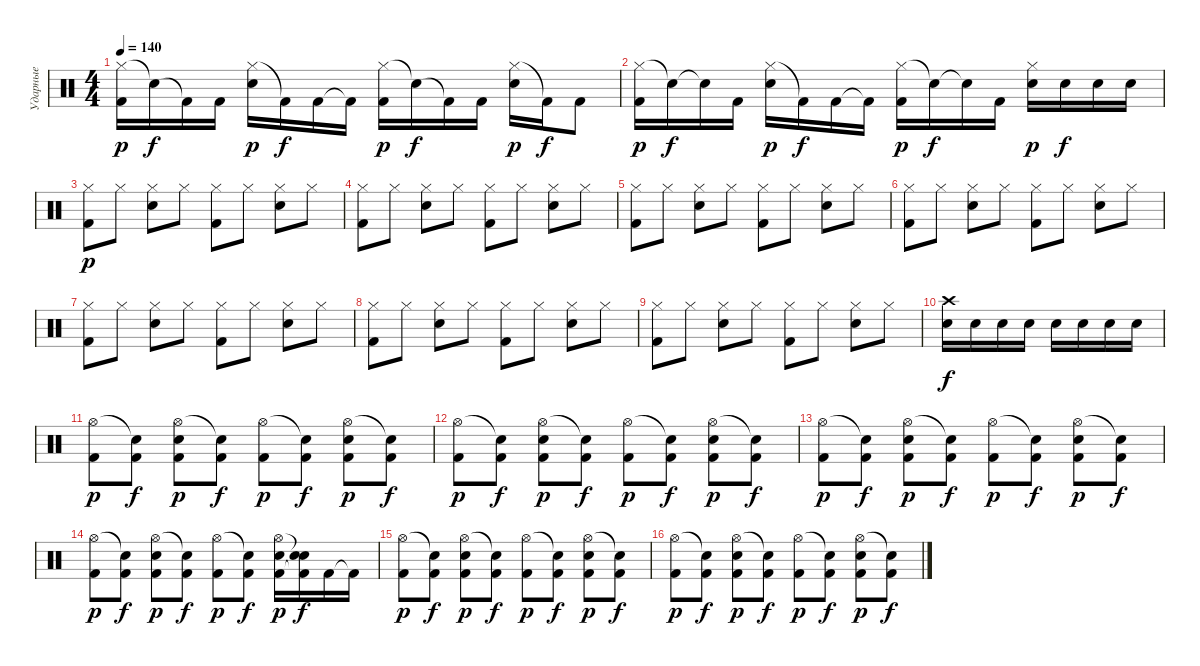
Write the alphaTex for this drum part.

\track ("Ударные" "Ударные") {instrument percussion}
\staff {score}
\articulation defaults
\ts (4 4)
\tempo 140
\clef neutral
\ks c
("Hi-Hat (closed)" "Kick (hit) 2").16{dy p} "Snare (hit)"{t}.16{dy f} "Kick (hit) 2"{t}.16 "Kick (hit) 2".16 ("Hi-Hat (closed)" "Electric Snare (hit)").16{dy p} "Kick (hit) 2"{t}.16{dy f} "Kick (hit) 2".16 "Kick (hit) 2"{t}.16 ("Hi-Hat (closed)" "Kick (hit) 2").16{dy p} "Snare (hit)"{t}.16{dy f} "Kick (hit) 2"{t}.16 "Kick (hit) 2".16 ("Hi-Hat (closed)" "Electric Snare (hit)").16{dy p} "Kick (hit) 2"{t}.16{dy f} "Kick (hit) 2".8 |
("Hi-Hat (closed)" "Kick (hit) 2").16{dy p} "Snare (hit)"{t}.16{dy f} "Electric Snare (hit)"{t}.16 "Kick (hit) 2".16 ("Hi-Hat (closed)" "Electric Snare (hit)").16{dy p} "Kick (hit) 2"{t}.16{dy f} "Kick (hit) 2".16 "Kick (hit) 2"{t}.16 ("Hi-Hat (closed)" "Kick (hit) 2").16{dy p} "Snare (hit)"{t}.16{dy f} "Snare (hit)"{t}.16 "Kick (hit) 2".16 ("Hi-Hat (closed)" "Electric Snare (hit)").16{dy p} "Electric Snare (hit)".16{dy f} "Electric Snare (hit)".16 "Electric Snare (hit)".16 |
("Hi-Hat (closed)" "Kick (hit) 2").8{dy p} "Hi-Hat (closed)".8 ("Hi-Hat (closed)" "Electric Snare (hit)").8 "Hi-Hat (closed)".8 ("Hi-Hat (closed)" "Kick (hit) 2").8 "Hi-Hat (closed)".8 ("Hi-Hat (closed)" "Electric Snare (hit)").8 "Hi-Hat (closed)".8 |
("Hi-Hat (closed)" "Kick (hit) 2").8 "Hi-Hat (closed)".8 ("Hi-Hat (closed)" "Electric Snare (hit)").8 "Hi-Hat (closed)".8 ("Hi-Hat (closed)" "Kick (hit) 2").8 "Hi-Hat (closed)".8 ("Hi-Hat (closed)" "Electric Snare (hit)").8 "Hi-Hat (closed)".8 |
("Hi-Hat (closed)" "Kick (hit) 2").8 "Hi-Hat (closed)".8 ("Hi-Hat (closed)" "Electric Snare (hit)").8 "Hi-Hat (closed)".8 ("Hi-Hat (closed)" "Kick (hit) 2").8 "Hi-Hat (closed)".8 ("Hi-Hat (closed)" "Electric Snare (hit)").8 "Hi-Hat (closed)".8 |
("Hi-Hat (closed)" "Kick (hit) 2").8 "Hi-Hat (closed)".8 ("Hi-Hat (closed)" "Electric Snare (hit)").8 "Hi-Hat (closed)".8 ("Hi-Hat (closed)" "Kick (hit) 2").8 "Hi-Hat (closed)".8 ("Hi-Hat (closed)" "Electric Snare (hit)").8 "Hi-Hat (closed)".8 |
("Hi-Hat (closed)" "Kick (hit) 2").8 "Hi-Hat (closed)".8 ("Hi-Hat (closed)" "Electric Snare (hit)").8 "Hi-Hat (closed)".8 ("Hi-Hat (closed)" "Kick (hit) 2").8 "Hi-Hat (closed)".8 ("Hi-Hat (closed)" "Electric Snare (hit)").8 "Hi-Hat (closed)".8 |
("Hi-Hat (closed)" "Kick (hit) 2").8 "Hi-Hat (closed)".8 ("Hi-Hat (closed)" "Electric Snare (hit)").8 "Hi-Hat (closed)".8 ("Hi-Hat (closed)" "Kick (hit) 2").8 "Hi-Hat (closed)".8 ("Hi-Hat (closed)" "Electric Snare (hit)").8 "Hi-Hat (closed)".8 |
("Hi-Hat (closed)" "Kick (hit) 2").8 "Hi-Hat (closed)".8 ("Hi-Hat (closed)" "Electric Snare (hit)").8 "Hi-Hat (closed)".8 ("Hi-Hat (closed)" "Kick (hit) 2").8 "Hi-Hat (closed)".8 ("Hi-Hat (closed)" "Electric Snare (hit)").8 "Hi-Hat (closed)".8 |
("Crash high (hit)" "Electric Snare (hit)").16{dy f} "Electric Snare (hit)".16 "Electric Snare (hit)".16 "Electric Snare (hit)".16 "Electric Snare (hit)".16 "Electric Snare (hit)".16 "Electric Snare (hit)".16 "Electric Snare (hit)".16 |
("Hi-Hat (open)" "Kick (hit) 2").8{dy p} ("Snare (hit)"{t} "Kick (hit) 2").8{dy f} ("Hi-Hat (open)" "Electric Snare (hit)" "Kick (hit) 2").8{dy p} ("Snare (hit)"{t} "Kick (hit) 2").8{dy f} ("Hi-Hat (open)" "Kick (hit) 2").8{dy p} ("Snare (hit)"{t} "Kick (hit) 2").8{dy f} ("Hi-Hat (open)" "Electric Snare (hit)" "Kick (hit) 2").8{dy p} ("Snare (hit)"{t} "Kick (hit) 2").8{dy f} |
("Hi-Hat (open)" "Kick (hit) 2").8{dy p} ("Snare (hit)"{t} "Kick (hit) 2").8{dy f} ("Hi-Hat (open)" "Electric Snare (hit)" "Kick (hit) 2").8{dy p} ("Snare (hit)"{t} "Kick (hit) 2").8{dy f} ("Hi-Hat (open)" "Kick (hit) 2").8{dy p} ("Snare (hit)"{t} "Kick (hit) 2").8{dy f} ("Hi-Hat (open)" "Electric Snare (hit)" "Kick (hit) 2").8{dy p} ("Snare (hit)"{t} "Kick (hit) 2").8{dy f} |
("Hi-Hat (open)" "Kick (hit) 2").8{dy p} ("Snare (hit)"{t} "Kick (hit) 2").8{dy f} ("Hi-Hat (open)" "Electric Snare (hit)" "Kick (hit) 2").8{dy p} ("Snare (hit)"{t} "Kick (hit) 2").8{dy f} ("Hi-Hat (open)" "Kick (hit) 2").8{dy p} ("Snare (hit)"{t} "Kick (hit) 2").8{dy f} ("Hi-Hat (open)" "Electric Snare (hit)" "Kick (hit) 2").8{dy p} ("Snare (hit)"{t} "Kick (hit) 2").8{dy f} |
("Hi-Hat (open)" "Kick (hit) 2").8{dy p} ("Snare (hit)"{t} "Kick (hit) 2").8{dy f} ("Hi-Hat (open)" "Electric Snare (hit)" "Kick (hit) 2").8{dy p} ("Snare (hit)"{t} "Kick (hit) 2").8{dy f} ("Hi-Hat (open)" "Kick (hit) 2").8{dy p} ("Snare (hit)"{t} "Kick (hit) 2").8{dy f} ("Hi-Hat (open)" "Electric Snare (hit)" "Kick (hit) 2").16{dy p} ("Snare (hit)"{t} "Electric Snare (hit)" "Kick (hit) 2"{t}).16{dy f} "Kick (hit) 2".16 "Kick (hit) 2"{t}.16 |
("Hi-Hat (open)" "Kick (hit) 2").8{dy p} ("Snare (hit)"{t} "Kick (hit) 2").8{dy f} ("Hi-Hat (open)" "Electric Snare (hit)" "Kick (hit) 2").8{dy p} ("Snare (hit)"{t} "Kick (hit) 2").8{dy f} ("Hi-Hat (open)" "Kick (hit) 2").8{dy p} ("Snare (hit)"{t} "Kick (hit) 2").8{dy f} ("Hi-Hat (open)" "Electric Snare (hit)" "Kick (hit) 2").8{dy p} ("Snare (hit)"{t} "Kick (hit) 2").8{dy f} |
("Hi-Hat (open)" "Kick (hit) 2").8{dy p} ("Snare (hit)"{t} "Kick (hit) 2").8{dy f} ("Hi-Hat (open)" "Electric Snare (hit)" "Kick (hit) 2").8{dy p} ("Snare (hit)"{t} "Kick (hit) 2").8{dy f} ("Hi-Hat (open)" "Kick (hit) 2").8{dy p} ("Snare (hit)"{t} "Kick (hit) 2").8{dy f} ("Hi-Hat (open)" "Electric Snare (hit)" "Kick (hit) 2").8{dy p} ("Snare (hit)"{t} "Kick (hit) 2").8{dy f}
